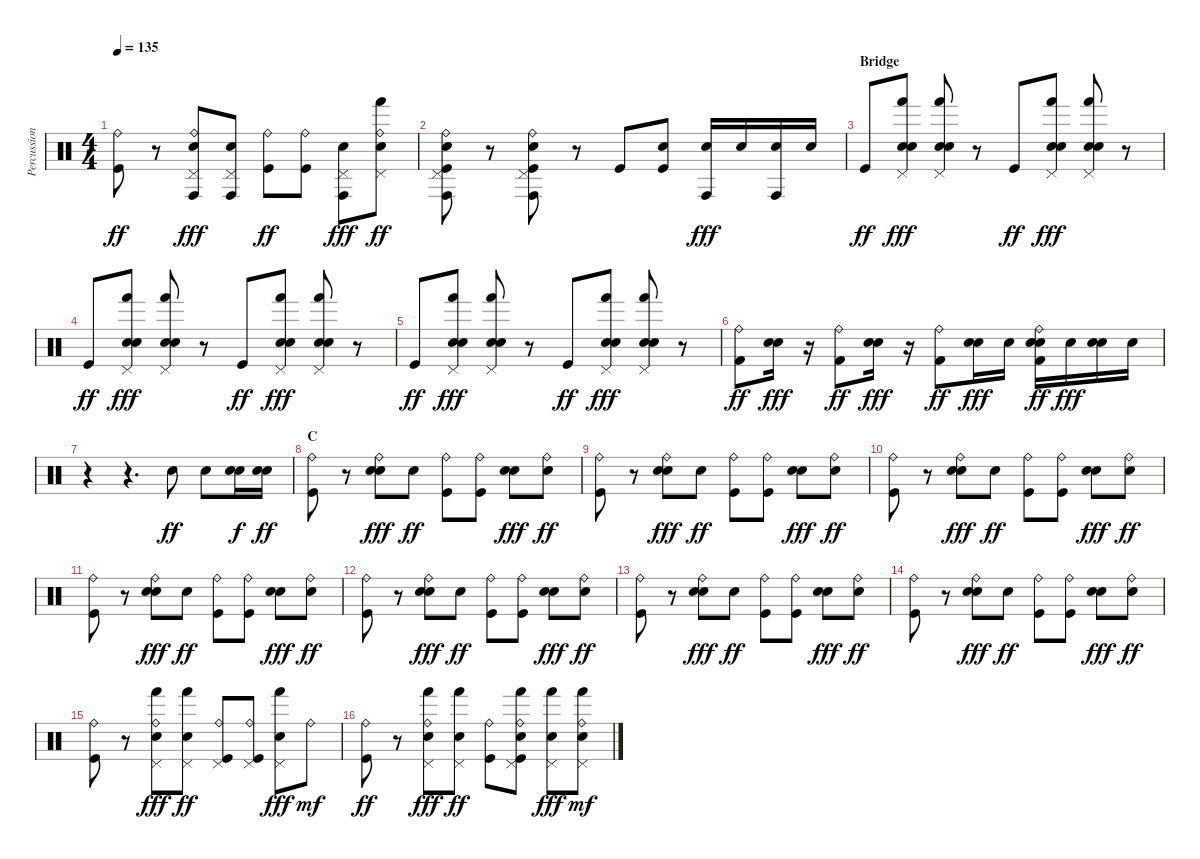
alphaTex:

\track ("Percussion" "Percussion") {instrument percussion}
\staff {score}
\articulation defaults
\ts (4 4)
\tempo 135
\clef neutral
\ks c
("Ride (bell)" "Kick (hit)").8{dy ff} r.8 ("Ride (bell)" "Pedal Hi-Hat (hit)" "Conga high (hit)" "Electric Snare (hit)").8{dy fff} ("Pedal Hi-Hat (hit)" "Conga high (hit)" "Electric Snare (hit)").8 ("Ride (bell)" "Kick (hit)").8{dy ff} ("Ride (bell)" "Kick (hit)").8 ("Pedal Hi-Hat (hit)" "Conga high (hit)" "Electric Snare (hit)").8{dy fff} ("Ride (bell)" "Pedal Hi-Hat (hit)" "Hand (hit)" "Electric Snare (hit)").8{dy ff} |
("Ride (bell)" "Pedal Hi-Hat (hit)" "Conga high (hit)" "Electric Snare (hit)" "Kick (hit)").8 r.8 ("Ride (bell)" "Pedal Hi-Hat (hit)" "Conga high (hit)" "Electric Snare (hit)" "Kick (hit)").8 r.8 "Kick (hit)".8 ("Electric Snare (hit)" "Kick (hit)").8 ("Conga high (hit)" "Electric Snare (hit)").16{dy fff} "Electric Snare (hit)".16 ("Conga high (hit)" "Electric Snare (hit)").16 "Electric Snare (hit)".16 |
\section ("" "Bridge")
"Kick (hit)".8{dy ff} ("Hand Clap (hit)" "Pedal Hi-Hat (hit)" "Hand (hit)" "Electric Snare (hit)").8{dy fff} ("Hand Clap (hit)" "Pedal Hi-Hat (hit)" "Hand (hit)" "Electric Snare (hit)").8 r.8 "Kick (hit)".8{dy ff} ("Hand Clap (hit)" "Pedal Hi-Hat (hit)" "Hand (hit)" "Electric Snare (hit)").8{dy fff} ("Hand Clap (hit)" "Pedal Hi-Hat (hit)" "Hand (hit)" "Electric Snare (hit)").8 r.8 |
"Kick (hit)".8{dy ff} ("Hand Clap (hit)" "Pedal Hi-Hat (hit)" "Hand (hit)" "Electric Snare (hit)").8{dy fff} ("Hand Clap (hit)" "Pedal Hi-Hat (hit)" "Hand (hit)" "Electric Snare (hit)").8 r.8 "Kick (hit)".8{dy ff} ("Hand Clap (hit)" "Pedal Hi-Hat (hit)" "Hand (hit)" "Electric Snare (hit)").8{dy fff} ("Hand Clap (hit)" "Pedal Hi-Hat (hit)" "Hand (hit)" "Electric Snare (hit)").8 r.8 |
"Kick (hit)".8{dy ff} ("Hand Clap (hit)" "Pedal Hi-Hat (hit)" "Hand (hit)" "Electric Snare (hit)").8{dy fff} ("Hand Clap (hit)" "Pedal Hi-Hat (hit)" "Hand (hit)" "Electric Snare (hit)").8 r.8 "Kick (hit)".8{dy ff} ("Hand Clap (hit)" "Pedal Hi-Hat (hit)" "Hand (hit)" "Electric Snare (hit)").8{dy fff} ("Hand Clap (hit)" "Pedal Hi-Hat (hit)" "Hand (hit)" "Electric Snare (hit)").8 r.8 |
("Ride (bell)" "Kick (hit) 2").8{dy ff} ("Snare (hit) 2" "Electric Snare (hit)").16{dy fff} r.16 ("Ride (bell)" "Kick (hit) 2").8{dy ff} ("Snare (hit) 2" "Electric Snare (hit)").16{dy fff} r.16 ("Ride (bell)" "Kick (hit) 2").8{dy ff} ("Snare (hit) 2" "Electric Snare (hit)").16{dy fff} "Electric Snare (hit)".16 ("Ride (bell)" "Snare (hit) 2" "Electric Snare (hit)" "Kick (hit) 2").16{dy ff} "Electric Snare (hit)".16{dy fff} ("Snare (hit) 2" "Electric Snare (hit)").16 "Electric Snare (hit)".16 |
r.4 r.4{d} "Snare (hit) 2".8{dy ff} "Snare (hit) 2".8 ("Snare (hit) 2" "Electric Snare (hit)").16{dy f} ("Snare (hit) 2" "Electric Snare (hit)").16{dy ff} |
\section ("" "C")
("Ride (bell)" "Kick (hit)").8 r.8 ("Ride (bell)" "Snare (hit) 2" "Electric Snare (hit)").8{dy fff} "Snare (hit) 2".8{dy ff} ("Ride (bell)" "Kick (hit)").8 ("Ride (bell)" "Kick (hit)").8 ("Snare (hit) 2" "Electric Snare (hit)").8{dy fff} ("Ride (bell)" "Snare (hit) 2").8{dy ff} |
("Ride (bell)" "Kick (hit)").8 r.8 ("Ride (bell)" "Snare (hit) 2" "Electric Snare (hit)").8{dy fff} "Snare (hit) 2".8{dy ff} ("Ride (bell)" "Kick (hit)").8 ("Ride (bell)" "Kick (hit)").8 ("Snare (hit) 2" "Electric Snare (hit)").8{dy fff} ("Ride (bell)" "Snare (hit) 2").8{dy ff} |
("Ride (bell)" "Kick (hit)").8 r.8 ("Ride (bell)" "Snare (hit) 2" "Electric Snare (hit)").8{dy fff} "Snare (hit) 2".8{dy ff} ("Ride (bell)" "Kick (hit)").8 ("Ride (bell)" "Kick (hit)").8 ("Snare (hit) 2" "Electric Snare (hit)").8{dy fff} ("Ride (bell)" "Snare (hit) 2").8{dy ff} |
("Ride (bell)" "Kick (hit)").8 r.8 ("Ride (bell)" "Snare (hit) 2" "Electric Snare (hit)").8{dy fff} "Snare (hit) 2".8{dy ff} ("Ride (bell)" "Kick (hit)").8 ("Ride (bell)" "Kick (hit)").8 ("Snare (hit) 2" "Electric Snare (hit)").8{dy fff} ("Ride (bell)" "Snare (hit) 2").8{dy ff} |
("Ride (bell)" "Kick (hit)").8 r.8 ("Ride (bell)" "Snare (hit) 2" "Electric Snare (hit)").8{dy fff} "Snare (hit) 2".8{dy ff} ("Ride (bell)" "Kick (hit)").8 ("Ride (bell)" "Kick (hit)").8 ("Snare (hit) 2" "Electric Snare (hit)").8{dy fff} ("Ride (bell)" "Snare (hit) 2").8{dy ff} |
("Ride (bell)" "Kick (hit)").8 r.8 ("Ride (bell)" "Snare (hit) 2" "Electric Snare (hit)").8{dy fff} "Snare (hit) 2".8{dy ff} ("Ride (bell)" "Kick (hit)").8 ("Ride (bell)" "Kick (hit)").8 ("Snare (hit) 2" "Electric Snare (hit)").8{dy fff} ("Ride (bell)" "Snare (hit) 2").8{dy ff} |
("Ride (bell)" "Kick (hit)").8 r.8 ("Ride (bell)" "Snare (hit) 2" "Electric Snare (hit)").8{dy fff} "Snare (hit) 2".8{dy ff} ("Ride (bell)" "Kick (hit)").8 ("Ride (bell)" "Kick (hit)").8 ("Snare (hit) 2" "Electric Snare (hit)").8{dy fff} ("Ride (bell)" "Snare (hit) 2").8{dy ff} |
("Ride (bell)" "Kick (hit)").8 r.8 ("Ride (bell)" "Pedal Hi-Hat (hit)" "Hand (hit)" "Electric Snare (hit)").8{dy fff} ("Pedal Hi-Hat (hit)" "Hand (hit)" "Electric Snare (hit)").8{dy ff} ("Ride (bell)" "Pedal Hi-Hat (hit)" "Kick (hit)").8 ("Ride (bell)" "Pedal Hi-Hat (hit)" "Kick (hit)").8 ("Pedal Hi-Hat (hit)" "Hand (hit)" "Electric Snare (hit)").8{dy fff} "Ride (bell)".8{dy mf} |
("Ride (bell)" "Kick (hit)").8{dy ff} r.8 ("Ride (bell)" "Pedal Hi-Hat (hit)" "Hand (hit)" "Electric Snare (hit)").8{dy fff} ("Pedal Hi-Hat (hit)" "Hand (hit)" "Electric Snare (hit)").8{dy ff} ("Ride (bell)" "Kick (hit)").8 ("Ride (bell)" "Pedal Hi-Hat (hit)" "Hand (hit)" "Electric Snare (hit)" "Kick (hit)").8 ("Pedal Hi-Hat (hit)" "Hand (hit)" "Electric Snare (hit)").8{dy fff} ("Ride (bell)" "Pedal Hi-Hat (hit)" "Hand (hit)" "Electric Snare (hit)").8{dy mf}
